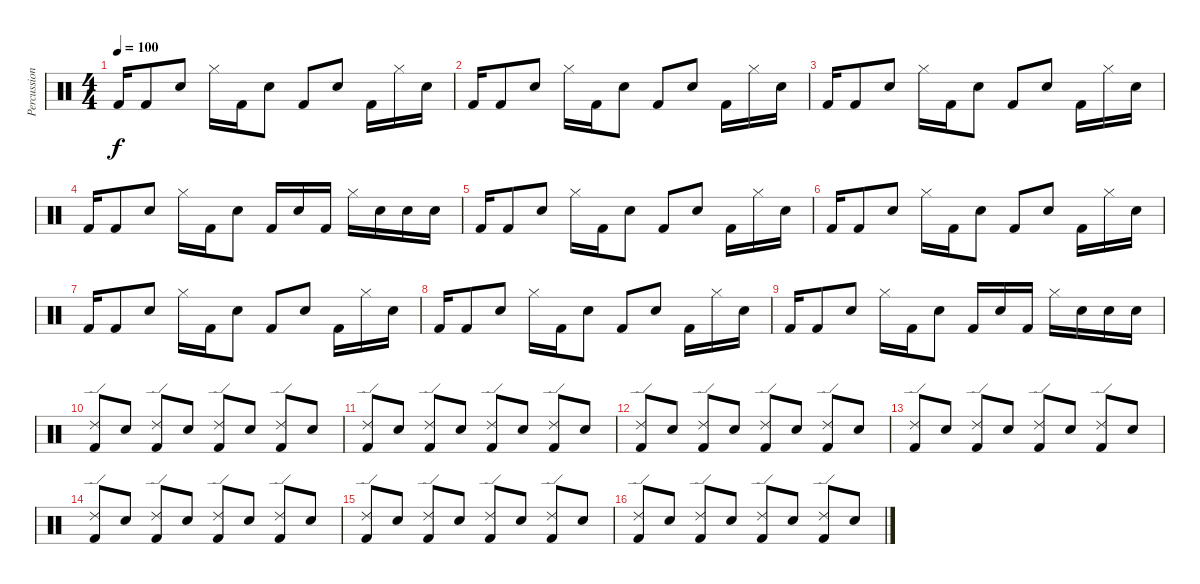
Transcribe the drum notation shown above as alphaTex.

\track ("Percussion" "Percussion") {instrument percussion}
\staff {score}
\articulation defaults
\ts (4 4)
\tempo 100
\clef neutral
\ks c "Kick (hit) 2".16{dy f} "Kick (hit) 2".8 "Snare (hit) 2".8 "Hi-Hat (closed)".16 "Kick (hit) 2".16 "Snare (hit) 2".8 "Kick (hit) 2".8 "Snare (hit) 2".8 "Kick (hit) 2".16 "Hi-Hat (closed)".16 "Snare (hit) 2".16
|
"Kick (hit) 2".16 "Kick (hit) 2".8 "Snare (hit) 2".8 "Hi-Hat (closed)".16 "Kick (hit) 2".16 "Snare (hit) 2".8 "Kick (hit) 2".8 "Snare (hit) 2".8 "Kick (hit) 2".16 "Hi-Hat (closed)".16 "Snare (hit) 2".16 |
"Kick (hit) 2".16 "Kick (hit) 2".8 "Snare (hit) 2".8 "Hi-Hat (closed)".16 "Kick (hit) 2".16 "Snare (hit) 2".8 "Kick (hit) 2".8 "Snare (hit) 2".8 "Kick (hit) 2".16 "Hi-Hat (closed)".16 "Snare (hit) 2".16 |
"Kick (hit) 2".16 "Kick (hit) 2".8 "Snare (hit) 2".8 "Hi-Hat (closed)".16 "Kick (hit) 2".16 "Snare (hit) 2".8 "Kick (hit) 2".16 "Snare (hit) 2".16 "Kick (hit) 2".16 "Hi-Hat (closed)".16 "Snare (hit) 2".16 "Snare (hit) 2".16 "Snare (hit) 2".16 |
"Kick (hit) 2".16 "Kick (hit) 2".8 "Snare (hit) 2".8 "Hi-Hat (closed)".16 "Kick (hit) 2".16 "Snare (hit) 2".8 "Kick (hit) 2".8 "Snare (hit) 2".8 "Kick (hit) 2".16 "Hi-Hat (closed)".16 "Snare (hit) 2".16 |
"Kick (hit) 2".16 "Kick (hit) 2".8 "Snare (hit) 2".8 "Hi-Hat (closed)".16 "Kick (hit) 2".16 "Snare (hit) 2".8 "Kick (hit) 2".8 "Snare (hit) 2".8 "Kick (hit) 2".16 "Hi-Hat (closed)".16 "Snare (hit) 2".16 |
"Kick (hit) 2".16 "Kick (hit) 2".8 "Snare (hit) 2".8 "Hi-Hat (closed)".16 "Kick (hit) 2".16 "Snare (hit) 2".8 "Kick (hit) 2".8 "Snare (hit) 2".8 "Kick (hit) 2".16 "Hi-Hat (closed)".16 "Snare (hit) 2".16 |
"Kick (hit) 2".16 "Kick (hit) 2".8 "Snare (hit) 2".8 "Hi-Hat (closed)".16 "Kick (hit) 2".16 "Snare (hit) 2".8 "Kick (hit) 2".8 "Snare (hit) 2".8 "Kick (hit) 2".16 "Hi-Hat (closed)".16 "Snare (hit) 2".16 |
"Kick (hit) 2".16 "Kick (hit) 2".8 "Snare (hit) 2".8 "Hi-Hat (closed)".16 "Kick (hit) 2".16 "Snare (hit) 2".8 "Kick (hit) 2".16 "Snare (hit) 2".16 "Kick (hit) 2".16 "Hi-Hat (closed)".16 "Snare (hit) 2".16 "Snare (hit) 2".16 "Snare (hit) 2".16 |
("Kick (hit) 2" "Ride (edge) 2").8 "Snare (hit) 2".8 ("Kick (hit) 2" "Ride (edge) 2").8 "Snare (hit) 2".8 ("Kick (hit) 2" "Ride (edge) 2").8 "Snare (hit) 2".8 ("Kick (hit) 2" "Ride (edge) 2").8 "Snare (hit) 2".8 |
("Kick (hit) 2" "Ride (edge) 2").8 "Snare (hit) 2".8 ("Kick (hit) 2" "Ride (edge) 2").8 "Snare (hit) 2".8 ("Kick (hit) 2" "Ride (edge) 2").8 "Snare (hit) 2".8 ("Kick (hit) 2" "Ride (edge) 2").8 "Snare (hit) 2".8 |
("Kick (hit) 2" "Ride (edge) 2").8 "Snare (hit) 2".8 ("Kick (hit) 2" "Ride (edge) 2").8 "Snare (hit) 2".8 ("Kick (hit) 2" "Ride (edge) 2").8 "Snare (hit) 2".8 ("Kick (hit) 2" "Ride (edge) 2").8 "Snare (hit) 2".8 |
("Kick (hit) 2" "Ride (edge) 2").8 "Snare (hit) 2".8 ("Kick (hit) 2" "Ride (edge) 2").8 "Snare (hit) 2".8 ("Kick (hit) 2" "Ride (edge) 2").8 "Snare (hit) 2".8 ("Kick (hit) 2" "Ride (edge) 2").8 "Snare (hit) 2".8 |
("Kick (hit) 2" "Ride (edge) 2").8 "Snare (hit) 2".8 ("Kick (hit) 2" "Ride (edge) 2").8 "Snare (hit) 2".8 ("Kick (hit) 2" "Ride (edge) 2").8 "Snare (hit) 2".8 ("Kick (hit) 2" "Ride (edge) 2").8 "Snare (hit) 2".8 |
("Kick (hit) 2" "Ride (edge) 2").8 "Snare (hit) 2".8 ("Kick (hit) 2" "Ride (edge) 2").8 "Snare (hit) 2".8 ("Kick (hit) 2" "Ride (edge) 2").8 "Snare (hit) 2".8 ("Kick (hit) 2" "Ride (edge) 2").8 "Snare (hit) 2".8 |
("Kick (hit) 2" "Ride (edge) 2").8 "Snare (hit) 2".8 ("Kick (hit) 2" "Ride (edge) 2").8 "Snare (hit) 2".8 ("Kick (hit) 2" "Ride (edge) 2").8 "Snare (hit) 2".8 ("Kick (hit) 2" "Ride (edge) 2").8 "Snare (hit) 2".8
